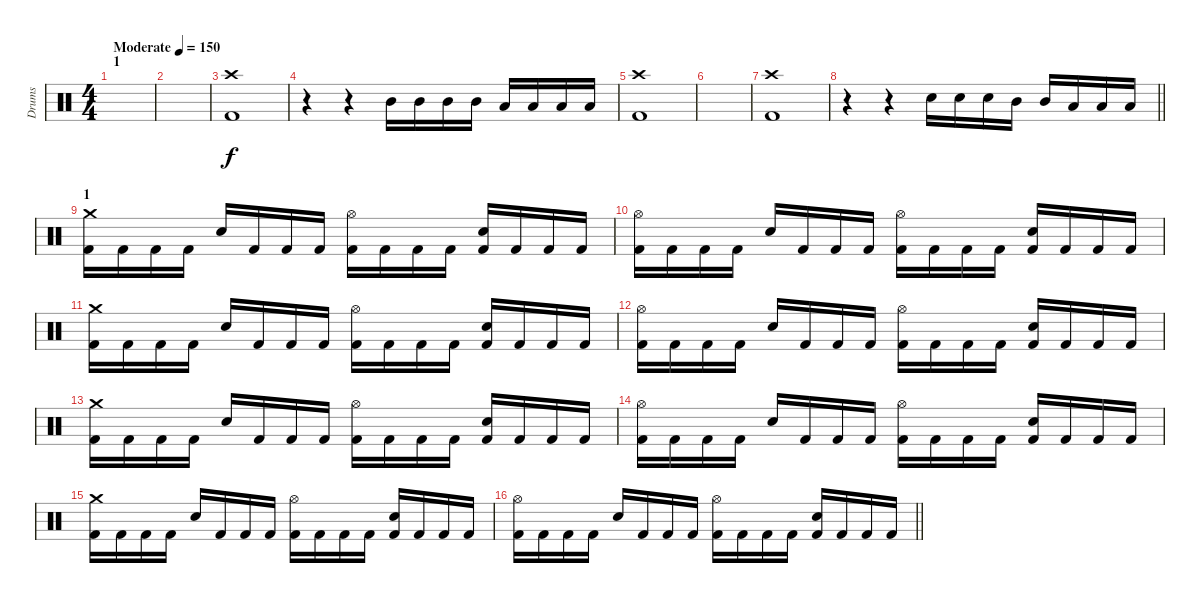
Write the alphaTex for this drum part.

\track ("Drums" "Drums") {instrument percussion}
\staff {score}
\articulation defaults
\ts (4 4)
\section ("" "1")
\tempo (150 "Moderate")
\clef neutral
\ks c
|
|
("Crash high (hit)" "Kick (hit) 2").1 |
r.4 r.4 "Mid Tom (hit)".16 "Mid Tom (hit)".16 "Mid Tom (hit)".16 "Mid Tom (hit)".16 "Low Tom (hit)".16 "Low Tom (hit)".16 "Low Floor Tom (hit)".16 "Low Floor Tom (hit)".16 |
("Crash high (hit)" "Kick (hit) 2").1 |
|
("Crash high (hit)" "Kick (hit) 2").1 |
\barLineRight lightlight
r.4 r.4 "Snare (hit) 2".16 "Snare (hit) 2".16 "Snare (hit) 2".16 "Mid Tom (hit)".16 "Mid Tom (hit)".16 "Low Tom (hit)".16 "Low Tom (hit)".16 "Low Floor Tom (hit)".16 |
\section ("" "1")
("Crash medium (hit)" "Kick (hit) 2").16 "Kick (hit) 2".16 "Kick (hit) 2".16 "Kick (hit) 2".16 "Snare (hit) 2".16 "Kick (hit) 2".16 "Kick (hit) 2".16 "Kick (hit) 2".16 ("Hi-Hat (open)" "Kick (hit) 2").16 "Kick (hit) 2".16 "Kick (hit) 2".16 "Kick (hit) 2".16 ("Snare (hit) 2" "Kick (hit) 2").16 "Kick (hit) 2".16 "Kick (hit) 2".16 "Kick (hit) 2".16 |
("Hi-Hat (open)" "Kick (hit) 2").16 "Kick (hit) 2".16 "Kick (hit) 2".16 "Kick (hit) 2".16 "Snare (hit) 2".16 "Kick (hit) 2".16 "Kick (hit) 2".16 "Kick (hit) 2".16 ("Hi-Hat (open)" "Kick (hit) 2").16 "Kick (hit) 2".16 "Kick (hit) 2".16 "Kick (hit) 2".16 ("Snare (hit) 2" "Kick (hit) 2").16 "Kick (hit) 2".16 "Kick (hit) 2".16 "Kick (hit) 2".16 |
("Crash medium (hit)" "Kick (hit) 2").16 "Kick (hit) 2".16 "Kick (hit) 2".16 "Kick (hit) 2".16 "Snare (hit) 2".16 "Kick (hit) 2".16 "Kick (hit) 2".16 "Kick (hit) 2".16 ("Hi-Hat (open)" "Kick (hit) 2").16 "Kick (hit) 2".16 "Kick (hit) 2".16 "Kick (hit) 2".16 ("Snare (hit) 2" "Kick (hit) 2").16 "Kick (hit) 2".16 "Kick (hit) 2".16 "Kick (hit) 2".16 |
("Hi-Hat (open)" "Kick (hit) 2").16 "Kick (hit) 2".16 "Kick (hit) 2".16 "Kick (hit) 2".16 "Snare (hit) 2".16 "Kick (hit) 2".16 "Kick (hit) 2".16 "Kick (hit) 2".16 ("Hi-Hat (open)" "Kick (hit) 2").16 "Kick (hit) 2".16 "Kick (hit) 2".16 "Kick (hit) 2".16 ("Snare (hit) 2" "Kick (hit) 2").16 "Kick (hit) 2".16 "Kick (hit) 2".16 "Kick (hit) 2".16 |
("Crash medium (hit)" "Kick (hit) 2").16 "Kick (hit) 2".16 "Kick (hit) 2".16 "Kick (hit) 2".16 "Snare (hit) 2".16 "Kick (hit) 2".16 "Kick (hit) 2".16 "Kick (hit) 2".16 ("Hi-Hat (open)" "Kick (hit) 2").16 "Kick (hit) 2".16 "Kick (hit) 2".16 "Kick (hit) 2".16 ("Snare (hit) 2" "Kick (hit) 2").16 "Kick (hit) 2".16 "Kick (hit) 2".16 "Kick (hit) 2".16 |
("Hi-Hat (open)" "Kick (hit) 2").16 "Kick (hit) 2".16 "Kick (hit) 2".16 "Kick (hit) 2".16 "Snare (hit) 2".16 "Kick (hit) 2".16 "Kick (hit) 2".16 "Kick (hit) 2".16 ("Hi-Hat (open)" "Kick (hit) 2").16 "Kick (hit) 2".16 "Kick (hit) 2".16 "Kick (hit) 2".16 ("Snare (hit) 2" "Kick (hit) 2").16 "Kick (hit) 2".16 "Kick (hit) 2".16 "Kick (hit) 2".16 |
("Crash medium (hit)" "Kick (hit) 2").16 "Kick (hit) 2".16 "Kick (hit) 2".16 "Kick (hit) 2".16 "Snare (hit) 2".16 "Kick (hit) 2".16 "Kick (hit) 2".16 "Kick (hit) 2".16 ("Hi-Hat (open)" "Kick (hit) 2").16 "Kick (hit) 2".16 "Kick (hit) 2".16 "Kick (hit) 2".16 ("Snare (hit) 2" "Kick (hit) 2").16 "Kick (hit) 2".16 "Kick (hit) 2".16 "Kick (hit) 2".16 |
\barLineRight lightlight
("Hi-Hat (open)" "Kick (hit) 2").16 "Kick (hit) 2".16 "Kick (hit) 2".16 "Kick (hit) 2".16 "Snare (hit) 2".16 "Kick (hit) 2".16 "Kick (hit) 2".16 "Kick (hit) 2".16 ("Hi-Hat (open)" "Kick (hit) 2").16 "Kick (hit) 2".16 "Kick (hit) 2".16 "Kick (hit) 2".16 ("Snare (hit) 2" "Kick (hit) 2").16 "Kick (hit) 2".16 "Kick (hit) 2".16 "Kick (hit) 2".16
